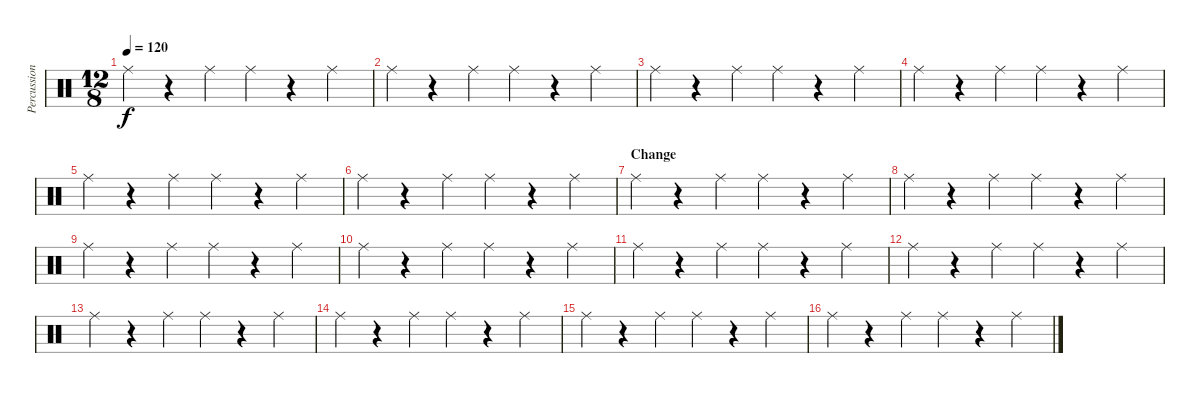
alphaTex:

\track ("Percussion" "Percussion") {instrument percussion}
\staff {score}
\articulation defaults
\ts (12 8)
\tempo 120
\clef neutral
\ks c "Ride (middle)".4{dy f}
r.4 "Ride (middle)".4 "Ride (middle)".4 r.4 "Ride (middle)".4 |
"Ride (middle)".4 r.4 "Ride (middle)".4 "Ride (middle)".4 r.4 "Ride (middle)".4 |
"Ride (middle)".4 r.4 "Ride (middle)".4 "Ride (middle)".4 r.4 "Ride (middle)".4 |
"Ride (middle)".4 r.4 "Ride (middle)".4 "Ride (middle)".4 r.4 "Ride (middle)".4 |
"Ride (middle)".4 r.4 "Ride (middle)".4 "Ride (middle)".4 r.4 "Ride (middle)".4 |
"Ride (middle)".4 r.4 "Ride (middle)".4 "Ride (middle)".4 r.4 "Ride (middle)".4 |
\section ("" "Change")
"Ride (middle)".4 r.4 "Ride (middle)".4 "Ride (middle)".4 r.4 "Ride (middle)".4 |
"Ride (middle)".4 r.4 "Ride (middle)".4 "Ride (middle)".4 r.4 "Ride (middle)".4 |
"Ride (middle)".4 r.4 "Ride (middle)".4 "Ride (middle)".4 r.4 "Ride (middle)".4 |
"Ride (middle)".4 r.4 "Ride (middle)".4 "Ride (middle)".4 r.4 "Ride (middle)".4 |
"Ride (middle)".4 r.4 "Ride (middle)".4 "Ride (middle)".4 r.4 "Ride (middle)".4 |
"Ride (middle)".4 r.4 "Ride (middle)".4 "Ride (middle)".4 r.4 "Ride (middle)".4 |
"Ride (middle)".4 r.4 "Ride (middle)".4 "Ride (middle)".4 r.4 "Ride (middle)".4 |
"Ride (middle)".4 r.4 "Ride (middle)".4 "Ride (middle)".4 r.4 "Ride (middle)".4 |
"Ride (middle)".4 r.4 "Ride (middle)".4 "Ride (middle)".4 r.4 "Ride (middle)".4 |
"Ride (middle)".4 r.4 "Ride (middle)".4 "Ride (middle)".4 r.4 "Ride (middle)".4
